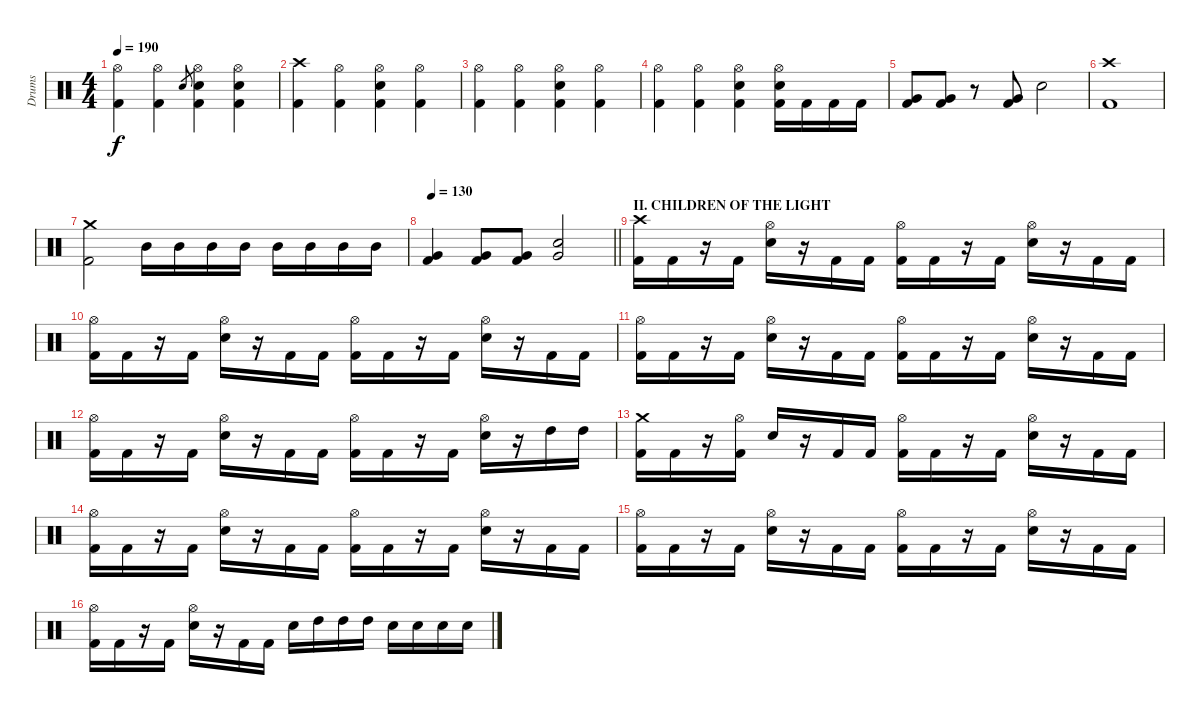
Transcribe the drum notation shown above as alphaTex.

\track ("Drums" "Drums") {instrument percussion}
\staff {score}
\articulation defaults
\ts (4 4)
\tempo 190
\clef neutral
\ks c
("Hi-Hat (open)" "Kick (hit) 2").4{dy f} ("Hi-Hat (open)" "Kick (hit) 2").4 "Snare (hit) 2".8{gr} ("Hi-Hat (open)" "Snare (hit) 2" "Kick (hit) 2").4 ("Hi-Hat (open)" "Snare (hit) 2" "Kick (hit) 2").4 |
("Crash high (hit)" "Kick (hit) 2").4 ("Hi-Hat (open)" "Kick (hit) 2").4 ("Hi-Hat (open)" "Snare (hit) 2" "Kick (hit) 2").4 ("Hi-Hat (open)" "Kick (hit) 2").4 |
("Hi-Hat (open)" "Kick (hit) 2").4 ("Hi-Hat (open)" "Kick (hit) 2").4 ("Hi-Hat (open)" "Snare (hit) 2" "Kick (hit) 2").4 ("Hi-Hat (open)" "Kick (hit) 2").4 |
("Hi-Hat (open)" "Kick (hit) 2").4 ("Hi-Hat (open)" "Kick (hit) 2").4 ("Hi-Hat (open)" "Snare (hit) 2" "Kick (hit) 2").4 ("Hi-Hat (open)" "Snare (hit) 2" "Kick (hit) 2").16 "Kick (hit) 2".16 "Kick (hit) 2".16 "Kick (hit) 2".16 |
("Very Low Tom (hit)" "Kick (hit) 2").8 ("Very Low Tom (hit)" "Kick (hit) 2").8 r.8 ("Very Low Tom (hit)" "Kick (hit) 2").8 "Snare (hit) 2".2 |
("Crash high (hit)" "Kick (hit) 2").1 |
("Crash medium (hit)" "Kick (hit) 2").2 "Mid Tom (hit)".16 "Mid Tom (hit)".16 "Mid Tom (hit)".16 "Mid Tom (hit)".16 "Mid Tom (hit)".16 "Mid Tom (hit)".16 "Mid Tom (hit)".16 "Mid Tom (hit)".16 |
\tempo 130
\barLineRight lightlight
("Very Low Tom (hit)" "Kick (hit) 2").4 ("Very Low Tom (hit)" "Kick (hit) 2").8 ("Very Low Tom (hit)" "Kick (hit) 2").8 ("Very Low Tom (hit)" "Snare (hit) 2").2 |
\section ("" "II. CHILDREN OF THE LIGHT")
("Crash high (hit)" "Kick (hit) 2").16 "Kick (hit) 2".16 r.16 "Kick (hit) 2".16 ("Hi-Hat (open)" "Snare (hit) 2").16 r.16 "Kick (hit) 2".16 "Kick (hit) 2".16 ("Hi-Hat (open)" "Kick (hit) 2").16 "Kick (hit) 2".16 r.16 "Kick (hit) 2".16 ("Hi-Hat (open)" "Snare (hit) 2").16 r.16 "Kick (hit) 2".16 "Kick (hit) 2".16 |
("Hi-Hat (open)" "Kick (hit) 2").16 "Kick (hit) 2".16 r.16 "Kick (hit) 2".16 ("Hi-Hat (open)" "Snare (hit) 2").16 r.16 "Kick (hit) 2".16 "Kick (hit) 2".16 ("Hi-Hat (open)" "Kick (hit) 2").16 "Kick (hit) 2".16 r.16 "Kick (hit) 2".16 ("Hi-Hat (open)" "Snare (hit) 2").16 r.16 "Kick (hit) 2".16 "Kick (hit) 2".16 |
("Hi-Hat (open)" "Kick (hit) 2").16 "Kick (hit) 2".16 r.16 "Kick (hit) 2".16 ("Hi-Hat (open)" "Snare (hit) 2").16 r.16 "Kick (hit) 2".16 "Kick (hit) 2".16 ("Hi-Hat (open)" "Kick (hit) 2").16 "Kick (hit) 2".16 r.16 "Kick (hit) 2".16 ("Hi-Hat (open)" "Snare (hit) 2").16 r.16 "Kick (hit) 2".16 "Kick (hit) 2".16 |
("Hi-Hat (open)" "Kick (hit) 2").16 "Kick (hit) 2".16 r.16 "Kick (hit) 2".16 ("Hi-Hat (open)" "Snare (hit) 2").16 r.16 "Kick (hit) 2".16 "Kick (hit) 2".16 ("Hi-Hat (open)" "Kick (hit) 2").16 "Kick (hit) 2".16 r.16 "Kick (hit) 2".16 ("Hi-Hat (open)" "Snare (hit) 2").16 r.16 "High Tom (hit)".16 "High Tom (hit)".16 |
("Crash medium (hit)" "Kick (hit) 2").16 "Kick (hit) 2".16 r.16 ("Hi-Hat (open)" "Kick (hit) 2").16 "Snare (hit) 2".16 r.16 "Kick (hit) 2".16 "Kick (hit) 2".16 ("Hi-Hat (open)" "Kick (hit) 2").16 "Kick (hit) 2".16 r.16 "Kick (hit) 2".16 ("Hi-Hat (open)" "Snare (hit) 2").16 r.16 "Kick (hit) 2".16 "Kick (hit) 2".16 |
("Hi-Hat (open)" "Kick (hit) 2").16 "Kick (hit) 2".16 r.16 "Kick (hit) 2".16 ("Hi-Hat (open)" "Snare (hit) 2").16 r.16 "Kick (hit) 2".16 "Kick (hit) 2".16 ("Hi-Hat (open)" "Kick (hit) 2").16 "Kick (hit) 2".16 r.16 "Kick (hit) 2".16 ("Hi-Hat (open)" "Snare (hit) 2").16 r.16 "Kick (hit) 2".16 "Kick (hit) 2".16 |
("Hi-Hat (open)" "Kick (hit) 2").16 "Kick (hit) 2".16 r.16 "Kick (hit) 2".16 ("Hi-Hat (open)" "Snare (hit) 2").16 r.16 "Kick (hit) 2".16 "Kick (hit) 2".16 ("Hi-Hat (open)" "Kick (hit) 2").16 "Kick (hit) 2".16 r.16 "Kick (hit) 2".16 ("Hi-Hat (open)" "Snare (hit) 2").16 r.16 "Kick (hit) 2".16 "Kick (hit) 2".16 |
("Hi-Hat (open)" "Kick (hit) 2").16 "Kick (hit) 2".16 r.16 "Kick (hit) 2".16 ("Hi-Hat (open)" "Snare (hit) 2").16 r.16 "Kick (hit) 2".16 "Kick (hit) 2".16 "Snare (hit) 2".16 "High Tom (hit)".16 "High Tom (hit)".16 "High Tom (hit)".16 "Snare (hit) 2".16 "Snare (hit) 2".16 "Snare (hit) 2".16 "Snare (hit) 2".16
